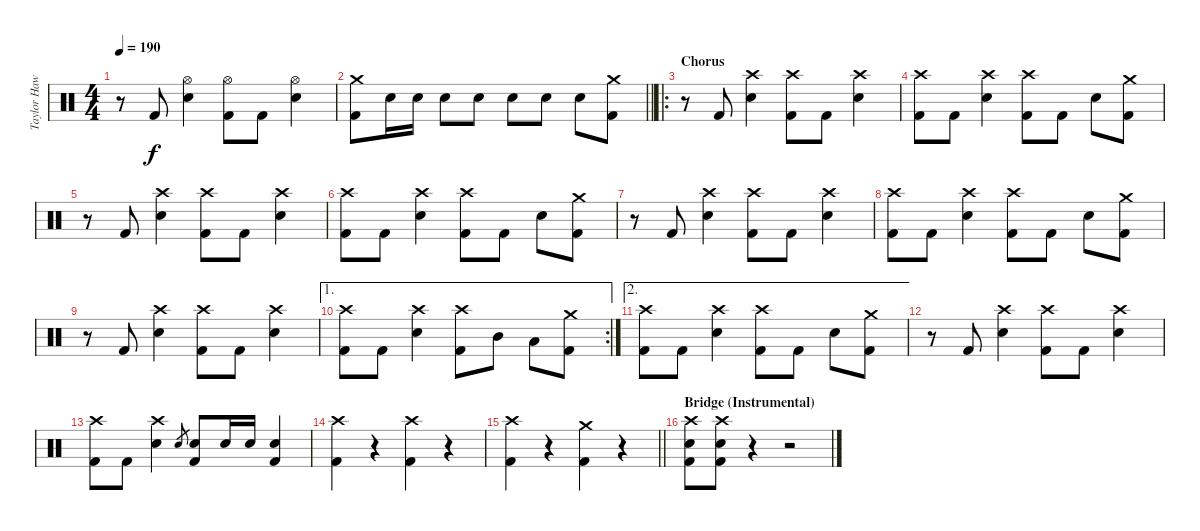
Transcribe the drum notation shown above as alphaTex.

\track ("Taylor Hawkins (Drums)" "Taylor Haw") {instrument percussion}
\staff {score}
\articulation defaults
\ts (4 4)
\tempo 190
\clef neutral
\ks c
r.8{dy f} "Kick (hit) 2".8 ("Hi-Hat (open)" "Snare (hit) 2").4 ("Hi-Hat (open)" "Kick (hit) 2").8 "Kick (hit) 2".8 ("Hi-Hat (open)" "Snare (hit) 2").4 |
\barLineRight lightlight
("Crash medium (hit)" "Kick (hit) 2").8 "Snare (hit) 2".16 "Snare (hit) 2".16 "Snare (hit) 2".8 "Snare (hit) 2".8 "Snare (hit) 2".8 "Snare (hit) 2".8 "Snare (hit) 2".8 ("Crash medium (hit)" "Kick (hit) 2").8 |
\ro
\section ("" "Chorus")
r.8 "Kick (hit) 2".8 ("Crash high (hit)" "Snare (hit) 2").4 ("Crash high (hit)" "Kick (hit) 2").8 "Kick (hit) 2".8 ("Crash high (hit)" "Snare (hit) 2").4 |
("Crash high (hit)" "Kick (hit) 2").8 "Kick (hit) 2".8 ("Crash high (hit)" "Snare (hit) 2").4 ("Crash high (hit)" "Kick (hit) 2").8 "Kick (hit) 2".8 "Snare (hit) 2".8 ("Crash medium (hit)" "Kick (hit) 2").8 |
r.8 "Kick (hit) 2".8 ("Crash high (hit)" "Snare (hit) 2").4 ("Crash high (hit)" "Kick (hit) 2").8 "Kick (hit) 2".8 ("Crash high (hit)" "Snare (hit) 2").4 |
("Crash high (hit)" "Kick (hit) 2").8 "Kick (hit) 2".8 ("Crash high (hit)" "Snare (hit) 2").4 ("Crash high (hit)" "Kick (hit) 2").8 "Kick (hit) 2".8 "Snare (hit) 2".8 ("Crash medium (hit)" "Kick (hit) 2").8 |
r.8 "Kick (hit) 2".8 ("Crash high (hit)" "Snare (hit) 2").4 ("Crash high (hit)" "Kick (hit) 2").8 "Kick (hit) 2".8 ("Crash high (hit)" "Snare (hit) 2").4 |
("Crash high (hit)" "Kick (hit) 2").8 "Kick (hit) 2".8 ("Crash high (hit)" "Snare (hit) 2").4 ("Crash high (hit)" "Kick (hit) 2").8 "Kick (hit) 2".8 "Snare (hit) 2".8 ("Crash medium (hit)" "Kick (hit) 2").8 |
r.8 "Kick (hit) 2".8 ("Crash high (hit)" "Snare (hit) 2").4 ("Crash high (hit)" "Kick (hit) 2").8 "Kick (hit) 2".8 ("Crash high (hit)" "Snare (hit) 2").4 |
\ae 1
\rc 2
("Crash high (hit)" "Kick (hit) 2").8 "Kick (hit) 2".8 ("Crash high (hit)" "Snare (hit) 2").4 ("Crash high (hit)" "Kick (hit) 2").8 "Mid Tom (hit)".8 "Low Tom (hit)".8 ("Crash medium (hit)" "Kick (hit) 2").8 |
\ae 2
("Crash high (hit)" "Kick (hit) 2").8 "Kick (hit) 2".8 ("Crash high (hit)" "Snare (hit) 2").4 ("Crash high (hit)" "Kick (hit) 2").8 "Kick (hit) 2".8 "Snare (hit) 2".8 ("Crash medium (hit)" "Kick (hit) 2").8 |
r.8 "Kick (hit) 2".8 ("Crash high (hit)" "Snare (hit) 2").4 ("Crash high (hit)" "Kick (hit) 2").8 "Kick (hit) 2".8 ("Crash high (hit)" "Snare (hit) 2").4 |
("Crash high (hit)" "Kick (hit) 2").8 "Kick (hit) 2".8 ("Crash high (hit)" "Snare (hit) 2").4 "Snare (hit) 2".8{gr} ("Snare (hit) 2" "Kick (hit) 2").8 "Snare (hit) 2".16 "Snare (hit) 2".16 ("Snare (hit) 2" "Kick (hit) 2").4 |
("Crash high (hit)" "Kick (hit) 2").4 r.4 ("Crash high (hit)" "Kick (hit) 2").4 r.4 |
\barLineRight lightlight
("Crash high (hit)" "Kick (hit) 2").4 r.4 ("Crash medium (hit)" "Kick (hit) 2").4 r.4 |
\section ("" "Bridge (Instrumental)")
("Crash high (hit)" "Snare (hit) 2" "Kick (hit) 2").8 ("Crash high (hit)" "Snare (hit) 2" "Kick (hit) 2").8 r.4 r.2
